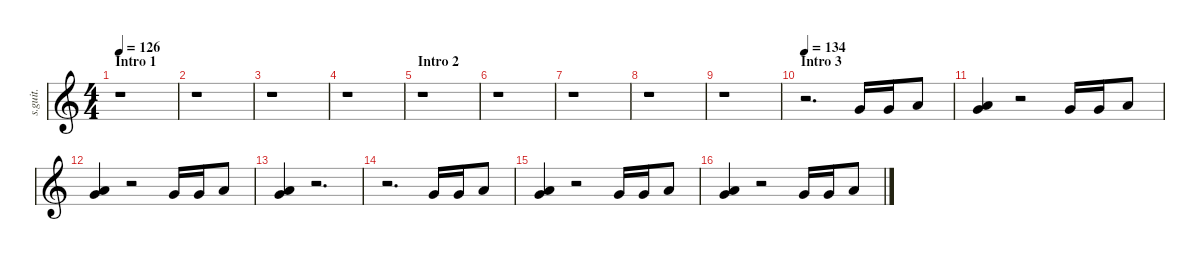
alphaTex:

\defaultSystemsLayout 4
\hideDynamics
\bracketExtendMode nobrackets
\track ("Shawn Crahan" "s.guit.") {instrument percussion}
\staff {score}
\articulation defaults
\ts (4 4)
\beaming (8 2 2 2 2)
\section ("" "Intro 1")
\tempo 126
\clef g2
\ks c
r.1{dy f} |
r.1 |
r.1 |
r.1 |
\section ("" "Intro 2")
r.1 |
r.1 |
r.1 |
r.1 |
r.1 |
\section ("" "Intro 3")
\tempo 134
r.2{d} "Very Low Tom (hit)".16 "Very Low Tom (hit)".16 "Low Floor Tom (hit)".8 |
("Very Low Tom (hit)" "Low Floor Tom (hit)").4 r.2 "Very Low Tom (hit)".16 "Very Low Tom (hit)".16 "Low Floor Tom (hit)".8 |
("Very Low Tom (hit)" "Low Floor Tom (hit)").4 r.2 "Very Low Tom (hit)".16 "Very Low Tom (hit)".16 "Low Floor Tom (hit)".8 |
("Very Low Tom (hit)" "Low Floor Tom (hit)").4 r.2{d} |
r.2{d} "Very Low Tom (hit)".16 "Very Low Tom (hit)".16 "Low Floor Tom (hit)".8 |
("Very Low Tom (hit)" "Low Floor Tom (hit)").4 r.2 "Very Low Tom (hit)".16 "Very Low Tom (hit)".16 "Low Floor Tom (hit)".8 |
("Very Low Tom (hit)" "Low Floor Tom (hit)").4 r.2 "Very Low Tom (hit)".16 "Very Low Tom (hit)".16 "Low Floor Tom (hit)".8
